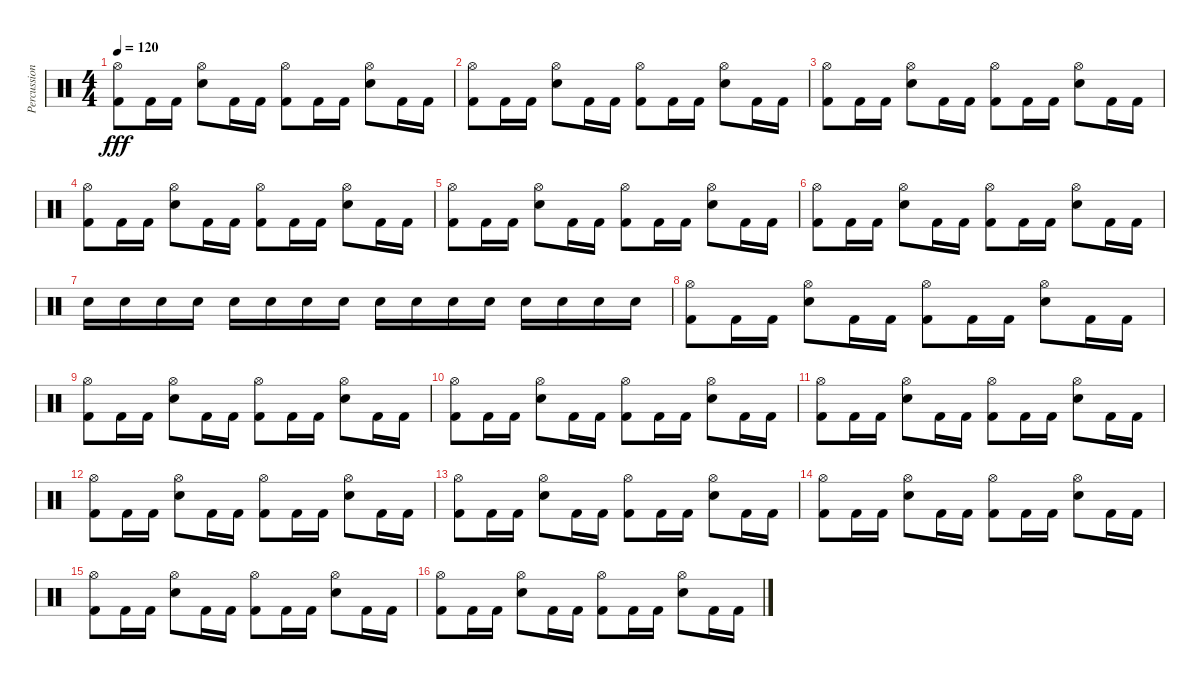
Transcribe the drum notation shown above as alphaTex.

\track ("Percussion" "Percussion") {instrument percussion}
\staff {score}
\articulation defaults
\ts (4 4)
\tempo 120
\clef neutral
\ks c
("Hi-Hat (open)" "Kick (hit) 2").8{dy fff} "Kick (hit) 2".16 "Kick (hit) 2".16 ("Hi-Hat (open)" "Electric Snare (hit)").8 "Kick (hit) 2".16 "Kick (hit) 2".16 ("Hi-Hat (open)" "Kick (hit) 2").8 "Kick (hit) 2".16 "Kick (hit) 2".16 ("Hi-Hat (open)" "Electric Snare (hit)").8 "Kick (hit) 2".16 "Kick (hit) 2".16 |
("Hi-Hat (open)" "Kick (hit) 2").8 "Kick (hit) 2".16 "Kick (hit) 2".16 ("Hi-Hat (open)" "Electric Snare (hit)").8 "Kick (hit) 2".16 "Kick (hit) 2".16 ("Hi-Hat (open)" "Kick (hit) 2").8 "Kick (hit) 2".16 "Kick (hit) 2".16 ("Hi-Hat (open)" "Electric Snare (hit)").8 "Kick (hit) 2".16 "Kick (hit) 2".16 |
("Hi-Hat (open)" "Kick (hit) 2").8 "Kick (hit) 2".16 "Kick (hit) 2".16 ("Hi-Hat (open)" "Electric Snare (hit)").8 "Kick (hit) 2".16 "Kick (hit) 2".16 ("Hi-Hat (open)" "Kick (hit) 2").8 "Kick (hit) 2".16 "Kick (hit) 2".16 ("Hi-Hat (open)" "Electric Snare (hit)").8 "Kick (hit) 2".16 "Kick (hit) 2".16 |
("Hi-Hat (open)" "Kick (hit) 2").8 "Kick (hit) 2".16 "Kick (hit) 2".16 ("Hi-Hat (open)" "Electric Snare (hit)").8 "Kick (hit) 2".16 "Kick (hit) 2".16 ("Hi-Hat (open)" "Kick (hit) 2").8 "Kick (hit) 2".16 "Kick (hit) 2".16 ("Hi-Hat (open)" "Electric Snare (hit)").8 "Kick (hit) 2".16 "Kick (hit) 2".16 |
("Hi-Hat (open)" "Kick (hit) 2").8 "Kick (hit) 2".16 "Kick (hit) 2".16 ("Hi-Hat (open)" "Electric Snare (hit)").8 "Kick (hit) 2".16 "Kick (hit) 2".16 ("Hi-Hat (open)" "Kick (hit) 2").8 "Kick (hit) 2".16 "Kick (hit) 2".16 ("Hi-Hat (open)" "Electric Snare (hit)").8 "Kick (hit) 2".16 "Kick (hit) 2".16 |
("Hi-Hat (open)" "Kick (hit) 2").8 "Kick (hit) 2".16 "Kick (hit) 2".16 ("Hi-Hat (open)" "Electric Snare (hit)").8 "Kick (hit) 2".16 "Kick (hit) 2".16 ("Hi-Hat (open)" "Kick (hit) 2").8 "Kick (hit) 2".16 "Kick (hit) 2".16 ("Hi-Hat (open)" "Electric Snare (hit)").8 "Kick (hit) 2".16 "Kick (hit) 2".16 |
"Electric Snare (hit)".16 "Electric Snare (hit)".16 "Electric Snare (hit)".16 "Electric Snare (hit)".16 "Electric Snare (hit)".16 "Electric Snare (hit)".16 "Electric Snare (hit)".16 "Electric Snare (hit)".16 "Electric Snare (hit)".16 "Electric Snare (hit)".16 "Electric Snare (hit)".16 "Electric Snare (hit)".16 "Electric Snare (hit)".16 "Electric Snare (hit)".16 "Electric Snare (hit)".16 "Electric Snare (hit)".16 |
("Hi-Hat (open)" "Kick (hit) 2").8 "Kick (hit) 2".16 "Kick (hit) 2".16 ("Hi-Hat (open)" "Electric Snare (hit)").8 "Kick (hit) 2".16 "Kick (hit) 2".16 ("Hi-Hat (open)" "Kick (hit) 2").8 "Kick (hit) 2".16 "Kick (hit) 2".16 ("Hi-Hat (open)" "Electric Snare (hit)").8 "Kick (hit) 2".16 "Kick (hit) 2".16 |
("Hi-Hat (open)" "Kick (hit) 2").8 "Kick (hit) 2".16 "Kick (hit) 2".16 ("Hi-Hat (open)" "Electric Snare (hit)").8 "Kick (hit) 2".16 "Kick (hit) 2".16 ("Hi-Hat (open)" "Kick (hit) 2").8 "Kick (hit) 2".16 "Kick (hit) 2".16 ("Hi-Hat (open)" "Electric Snare (hit)").8 "Kick (hit) 2".16 "Kick (hit) 2".16 |
("Hi-Hat (open)" "Kick (hit) 2").8 "Kick (hit) 2".16 "Kick (hit) 2".16 ("Hi-Hat (open)" "Electric Snare (hit)").8 "Kick (hit) 2".16 "Kick (hit) 2".16 ("Hi-Hat (open)" "Kick (hit) 2").8 "Kick (hit) 2".16 "Kick (hit) 2".16 ("Hi-Hat (open)" "Electric Snare (hit)").8 "Kick (hit) 2".16 "Kick (hit) 2".16 |
("Hi-Hat (open)" "Kick (hit) 2").8 "Kick (hit) 2".16 "Kick (hit) 2".16 ("Hi-Hat (open)" "Electric Snare (hit)").8 "Kick (hit) 2".16 "Kick (hit) 2".16 ("Hi-Hat (open)" "Kick (hit) 2").8 "Kick (hit) 2".16 "Kick (hit) 2".16 ("Hi-Hat (open)" "Electric Snare (hit)").8 "Kick (hit) 2".16 "Kick (hit) 2".16 |
("Hi-Hat (open)" "Kick (hit) 2").8 "Kick (hit) 2".16 "Kick (hit) 2".16 ("Hi-Hat (open)" "Electric Snare (hit)").8 "Kick (hit) 2".16 "Kick (hit) 2".16 ("Hi-Hat (open)" "Kick (hit) 2").8 "Kick (hit) 2".16 "Kick (hit) 2".16 ("Hi-Hat (open)" "Electric Snare (hit)").8 "Kick (hit) 2".16 "Kick (hit) 2".16 |
("Hi-Hat (open)" "Kick (hit) 2").8 "Kick (hit) 2".16 "Kick (hit) 2".16 ("Hi-Hat (open)" "Electric Snare (hit)").8 "Kick (hit) 2".16 "Kick (hit) 2".16 ("Hi-Hat (open)" "Kick (hit) 2").8 "Kick (hit) 2".16 "Kick (hit) 2".16 ("Hi-Hat (open)" "Electric Snare (hit)").8 "Kick (hit) 2".16 "Kick (hit) 2".16 |
("Hi-Hat (open)" "Kick (hit) 2").8 "Kick (hit) 2".16 "Kick (hit) 2".16 ("Hi-Hat (open)" "Electric Snare (hit)").8 "Kick (hit) 2".16 "Kick (hit) 2".16 ("Hi-Hat (open)" "Kick (hit) 2").8 "Kick (hit) 2".16 "Kick (hit) 2".16 ("Hi-Hat (open)" "Electric Snare (hit)").8 "Kick (hit) 2".16 "Kick (hit) 2".16 |
("Hi-Hat (open)" "Kick (hit) 2").8 "Kick (hit) 2".16 "Kick (hit) 2".16 ("Hi-Hat (open)" "Electric Snare (hit)").8 "Kick (hit) 2".16 "Kick (hit) 2".16 ("Hi-Hat (open)" "Kick (hit) 2").8 "Kick (hit) 2".16 "Kick (hit) 2".16 ("Hi-Hat (open)" "Electric Snare (hit)").8 "Kick (hit) 2".16 "Kick (hit) 2".16 |
("Hi-Hat (open)" "Kick (hit) 2").8 "Kick (hit) 2".16 "Kick (hit) 2".16 ("Hi-Hat (open)" "Electric Snare (hit)").8 "Kick (hit) 2".16 "Kick (hit) 2".16 ("Hi-Hat (open)" "Kick (hit) 2").8 "Kick (hit) 2".16 "Kick (hit) 2".16 ("Hi-Hat (open)" "Electric Snare (hit)").8 "Kick (hit) 2".16 "Kick (hit) 2".16
